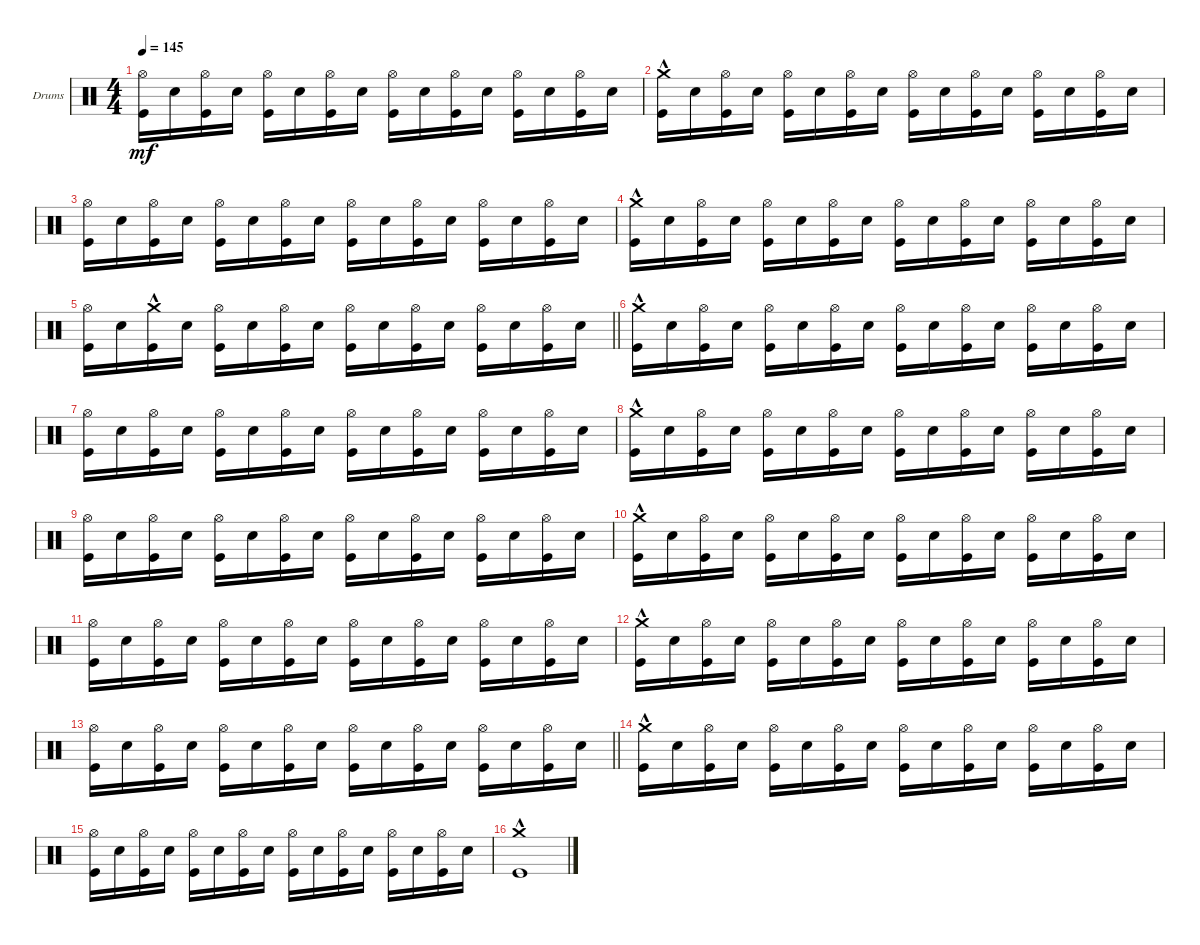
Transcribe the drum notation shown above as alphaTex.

\defaultSystemsLayout 4
\bracketExtendMode groupsimilarinstruments
\firstSystemTrackNameOrientation horizontal
\otherSystemsTrackNameOrientation horizontal
\track ("Drumkit" "Drums") {instrument percussion}
\staff {score}
\articulation defaults
\ts (4 4)
\tempo 145
\clef neutral
\ks c
("Kick (hit)" "Hi-Hat (open)").16{dy mf} "Snare (hit) 2".16 ("Kick (hit)" "Hi-Hat (open)").16 "Snare (hit) 2".16 ("Kick (hit)" "Hi-Hat (open)").16 "Snare (hit) 2".16 ("Kick (hit)" "Hi-Hat (open)").16 "Snare (hit) 2".16 ("Kick (hit)" "Hi-Hat (open)").16 "Snare (hit) 2".16 ("Kick (hit)" "Hi-Hat (open)").16 "Snare (hit) 2".16 ("Kick (hit)" "Hi-Hat (open)").16 "Snare (hit) 2".16 ("Kick (hit)" "Hi-Hat (open)").16 "Snare (hit) 2".16 |
("Kick (hit)" "Crash medium (hit)"{hac}).16 "Snare (hit) 2".16 ("Kick (hit)" "Hi-Hat (open)").16 "Snare (hit) 2".16 ("Kick (hit)" "Hi-Hat (open)").16 "Snare (hit) 2".16 ("Kick (hit)" "Hi-Hat (open)").16 "Snare (hit) 2".16 ("Kick (hit)" "Hi-Hat (open)").16 "Snare (hit) 2".16 ("Kick (hit)" "Hi-Hat (open)").16 "Snare (hit) 2".16 ("Kick (hit)" "Hi-Hat (open)").16 "Snare (hit) 2".16 ("Kick (hit)" "Hi-Hat (open)").16 "Snare (hit) 2".16 |
("Kick (hit)" "Hi-Hat (open)").16 "Snare (hit) 2".16 ("Kick (hit)" "Hi-Hat (open)").16 "Snare (hit) 2".16 ("Kick (hit)" "Hi-Hat (open)").16 "Snare (hit) 2".16 ("Kick (hit)" "Hi-Hat (open)").16 "Snare (hit) 2".16 ("Kick (hit)" "Hi-Hat (open)").16 "Snare (hit) 2".16 ("Kick (hit)" "Hi-Hat (open)").16 "Snare (hit) 2".16 ("Kick (hit)" "Hi-Hat (open)").16 "Snare (hit) 2".16 ("Kick (hit)" "Hi-Hat (open)").16 "Snare (hit) 2".16 |
("Kick (hit)" "Crash medium (hit)"{hac}).16 "Snare (hit) 2".16 ("Kick (hit)" "Hi-Hat (open)").16 "Snare (hit) 2".16 ("Kick (hit)" "Hi-Hat (open)").16 "Snare (hit) 2".16 ("Kick (hit)" "Hi-Hat (open)").16 "Snare (hit) 2".16 ("Kick (hit)" "Hi-Hat (open)").16 "Snare (hit) 2".16 ("Kick (hit)" "Hi-Hat (open)").16 "Snare (hit) 2".16 ("Kick (hit)" "Hi-Hat (open)").16 "Snare (hit) 2".16 ("Kick (hit)" "Hi-Hat (open)").16 "Snare (hit) 2".16 |
\barLineRight lightlight
("Kick (hit)" "Hi-Hat (open)").16 "Snare (hit) 2".16 ("Kick (hit)" "Crash medium (hit)"{hac}).16 "Snare (hit) 2".16 ("Kick (hit)" "Hi-Hat (open)").16 "Snare (hit) 2".16 ("Kick (hit)" "Hi-Hat (open)").16 "Snare (hit) 2".16 ("Kick (hit)" "Hi-Hat (open)").16 "Snare (hit) 2".16 ("Kick (hit)" "Hi-Hat (open)").16 "Snare (hit) 2".16 ("Kick (hit)" "Hi-Hat (open)").16 "Snare (hit) 2".16 ("Kick (hit)" "Hi-Hat (open)").16 "Snare (hit) 2".16 |
("Kick (hit)" "Crash medium (hit)"{hac}).16 "Snare (hit) 2".16 ("Kick (hit)" "Hi-Hat (open)").16 "Snare (hit) 2".16 ("Kick (hit)" "Hi-Hat (open)").16 "Snare (hit) 2".16 ("Kick (hit)" "Hi-Hat (open)").16 "Snare (hit) 2".16 ("Kick (hit)" "Hi-Hat (open)").16 "Snare (hit) 2".16 ("Kick (hit)" "Hi-Hat (open)").16 "Snare (hit) 2".16 ("Kick (hit)" "Hi-Hat (open)").16 "Snare (hit) 2".16 ("Kick (hit)" "Hi-Hat (open)").16 "Snare (hit) 2".16 |
("Kick (hit)" "Hi-Hat (open)").16 "Snare (hit) 2".16 ("Kick (hit)" "Hi-Hat (open)").16 "Snare (hit) 2".16 ("Kick (hit)" "Hi-Hat (open)").16 "Snare (hit) 2".16 ("Kick (hit)" "Hi-Hat (open)").16 "Snare (hit) 2".16 ("Kick (hit)" "Hi-Hat (open)").16 "Snare (hit) 2".16 ("Kick (hit)" "Hi-Hat (open)").16 "Snare (hit) 2".16 ("Kick (hit)" "Hi-Hat (open)").16 "Snare (hit) 2".16 ("Kick (hit)" "Hi-Hat (open)").16 "Snare (hit) 2".16 |
("Kick (hit)" "Crash medium (hit)"{hac}).16 "Snare (hit) 2".16 ("Kick (hit)" "Hi-Hat (open)").16 "Snare (hit) 2".16 ("Kick (hit)" "Hi-Hat (open)").16 "Snare (hit) 2".16 ("Kick (hit)" "Hi-Hat (open)").16 "Snare (hit) 2".16 ("Kick (hit)" "Hi-Hat (open)").16 "Snare (hit) 2".16 ("Kick (hit)" "Hi-Hat (open)").16 "Snare (hit) 2".16 ("Kick (hit)" "Hi-Hat (open)").16 "Snare (hit) 2".16 ("Kick (hit)" "Hi-Hat (open)").16 "Snare (hit) 2".16 |
("Kick (hit)" "Hi-Hat (open)").16 "Snare (hit) 2".16 ("Kick (hit)" "Hi-Hat (open)").16 "Snare (hit) 2".16 ("Kick (hit)" "Hi-Hat (open)").16 "Snare (hit) 2".16 ("Kick (hit)" "Hi-Hat (open)").16 "Snare (hit) 2".16 ("Kick (hit)" "Hi-Hat (open)").16 "Snare (hit) 2".16 ("Kick (hit)" "Hi-Hat (open)").16 "Snare (hit) 2".16 ("Kick (hit)" "Hi-Hat (open)").16 "Snare (hit) 2".16 ("Kick (hit)" "Hi-Hat (open)").16 "Snare (hit) 2".16 |
("Kick (hit)" "Crash medium (hit)"{hac}).16 "Snare (hit) 2".16 ("Kick (hit)" "Hi-Hat (open)").16 "Snare (hit) 2".16 ("Kick (hit)" "Hi-Hat (open)").16 "Snare (hit) 2".16 ("Kick (hit)" "Hi-Hat (open)").16 "Snare (hit) 2".16 ("Kick (hit)" "Hi-Hat (open)").16 "Snare (hit) 2".16 ("Kick (hit)" "Hi-Hat (open)").16 "Snare (hit) 2".16 ("Kick (hit)" "Hi-Hat (open)").16 "Snare (hit) 2".16 ("Kick (hit)" "Hi-Hat (open)").16 "Snare (hit) 2".16 |
("Kick (hit)" "Hi-Hat (open)").16 "Snare (hit) 2".16 ("Kick (hit)" "Hi-Hat (open)").16 "Snare (hit) 2".16 ("Kick (hit)" "Hi-Hat (open)").16 "Snare (hit) 2".16 ("Kick (hit)" "Hi-Hat (open)").16 "Snare (hit) 2".16 ("Kick (hit)" "Hi-Hat (open)").16 "Snare (hit) 2".16 ("Kick (hit)" "Hi-Hat (open)").16 "Snare (hit) 2".16 ("Kick (hit)" "Hi-Hat (open)").16 "Snare (hit) 2".16 ("Kick (hit)" "Hi-Hat (open)").16 "Snare (hit) 2".16 |
("Kick (hit)" "Crash medium (hit)"{hac}).16 "Snare (hit) 2".16 ("Kick (hit)" "Hi-Hat (open)").16 "Snare (hit) 2".16 ("Kick (hit)" "Hi-Hat (open)").16 "Snare (hit) 2".16 ("Kick (hit)" "Hi-Hat (open)").16 "Snare (hit) 2".16 ("Kick (hit)" "Hi-Hat (open)").16 "Snare (hit) 2".16 ("Kick (hit)" "Hi-Hat (open)").16 "Snare (hit) 2".16 ("Kick (hit)" "Hi-Hat (open)").16 "Snare (hit) 2".16 ("Kick (hit)" "Hi-Hat (open)").16 "Snare (hit) 2".16 |
\barLineRight lightlight
("Kick (hit)" "Hi-Hat (open)").16 "Snare (hit) 2".16 ("Kick (hit)" "Hi-Hat (open)").16 "Snare (hit) 2".16 ("Kick (hit)" "Hi-Hat (open)").16 "Snare (hit) 2".16 ("Kick (hit)" "Hi-Hat (open)").16 "Snare (hit) 2".16 ("Kick (hit)" "Hi-Hat (open)").16 "Snare (hit) 2".16 ("Kick (hit)" "Hi-Hat (open)").16 "Snare (hit) 2".16 ("Kick (hit)" "Hi-Hat (open)").16 "Snare (hit) 2".16 ("Kick (hit)" "Hi-Hat (open)").16 "Snare (hit) 2".16 |
("Kick (hit)" "Crash medium (hit)"{hac}).16 "Snare (hit) 2".16 ("Kick (hit)" "Hi-Hat (open)").16 "Snare (hit) 2".16 ("Kick (hit)" "Hi-Hat (open)").16 "Snare (hit) 2".16 ("Kick (hit)" "Hi-Hat (open)").16 "Snare (hit) 2".16 ("Kick (hit)" "Hi-Hat (open)").16 "Snare (hit) 2".16 ("Kick (hit)" "Hi-Hat (open)").16 "Snare (hit) 2".16 ("Kick (hit)" "Hi-Hat (open)").16 "Snare (hit) 2".16 ("Kick (hit)" "Hi-Hat (open)").16 "Snare (hit) 2".16 |
("Kick (hit)" "Hi-Hat (open)").16 "Snare (hit) 2".16 ("Kick (hit)" "Hi-Hat (open)").16 "Snare (hit) 2".16 ("Kick (hit)" "Hi-Hat (open)").16 "Snare (hit) 2".16 ("Kick (hit)" "Hi-Hat (open)").16 "Snare (hit) 2".16 ("Kick (hit)" "Hi-Hat (open)").16 "Snare (hit) 2".16 ("Kick (hit)" "Hi-Hat (open)").16 "Snare (hit) 2".16 ("Kick (hit)" "Hi-Hat (open)").16 "Snare (hit) 2".16 ("Kick (hit)" "Hi-Hat (open)").16 "Snare (hit) 2".16 |
("Kick (hit)" "Crash medium (hit)"{hac}).1
